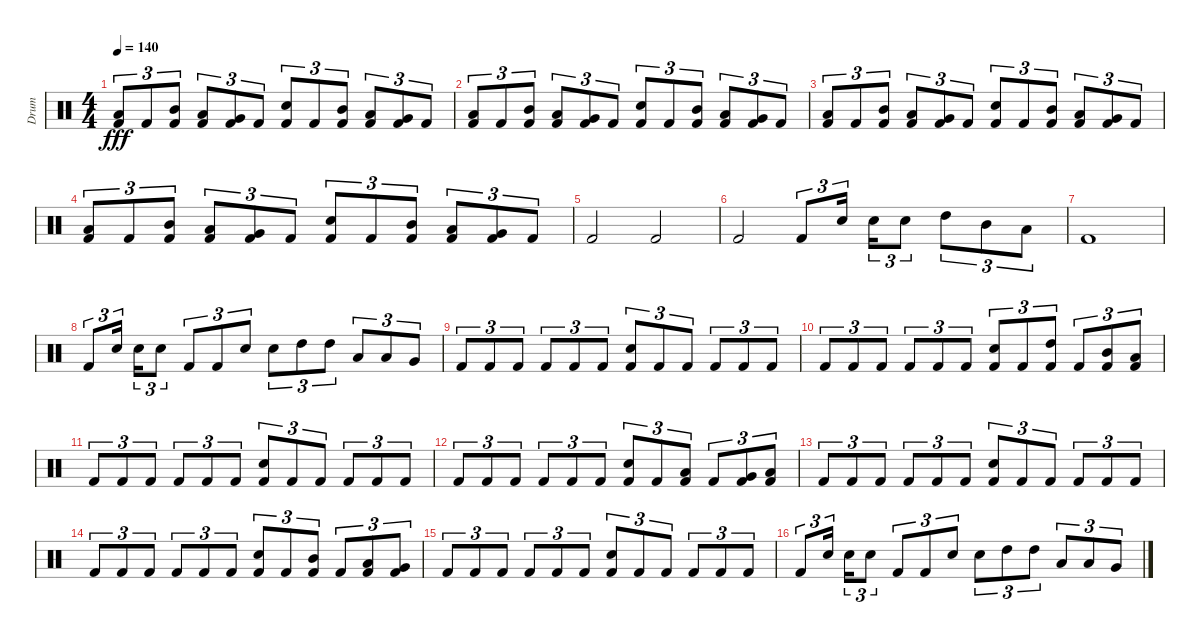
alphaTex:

\track ("Drum" "Drum") {instrument percussion}
\staff {score}
\articulation defaults
\ts (4 4)
\tempo 140
\clef neutral
\ks c
("Low Tom (hit)" "Kick (hit) 2").8{tu (3 2) dy fff} "Kick (hit) 2".8{tu (3 2)} ("Mid Tom (hit)" "Kick (hit) 2").8{tu (3 2)} ("Low Tom (hit)" "Kick (hit) 2").8{tu (3 2)} ("Very Low Tom (hit)" "Kick (hit) 2").8{tu (3 2)} "Kick (hit) 2".8{tu (3 2)} ("Electric Snare (hit)" "Kick (hit) 2").8{tu (3 2)} "Kick (hit) 2".8{tu (3 2)} ("Mid Tom (hit)" "Kick (hit) 2").8{tu (3 2)} ("Low Tom (hit)" "Kick (hit) 2").8{tu (3 2)} ("Very Low Tom (hit)" "Kick (hit) 2").8{tu (3 2)} "Kick (hit) 2".8{tu (3 2)} |
("Low Tom (hit)" "Kick (hit) 2").8{tu (3 2)} "Kick (hit) 2".8{tu (3 2)} ("Mid Tom (hit)" "Kick (hit) 2").8{tu (3 2)} ("Low Tom (hit)" "Kick (hit) 2").8{tu (3 2)} ("Very Low Tom (hit)" "Kick (hit) 2").8{tu (3 2)} "Kick (hit) 2".8{tu (3 2)} ("Electric Snare (hit)" "Kick (hit) 2").8{tu (3 2)} "Kick (hit) 2".8{tu (3 2)} ("Mid Tom (hit)" "Kick (hit) 2").8{tu (3 2)} ("Low Tom (hit)" "Kick (hit) 2").8{tu (3 2)} ("Very Low Tom (hit)" "Kick (hit) 2").8{tu (3 2)} "Kick (hit) 2".8{tu (3 2)} |
("Low Tom (hit)" "Kick (hit) 2").8{tu (3 2)} "Kick (hit) 2".8{tu (3 2)} ("Mid Tom (hit)" "Kick (hit) 2").8{tu (3 2)} ("Low Tom (hit)" "Kick (hit) 2").8{tu (3 2)} ("Very Low Tom (hit)" "Kick (hit) 2").8{tu (3 2)} "Kick (hit) 2".8{tu (3 2)} ("Electric Snare (hit)" "Kick (hit) 2").8{tu (3 2)} "Kick (hit) 2".8{tu (3 2)} ("Mid Tom (hit)" "Kick (hit) 2").8{tu (3 2)} ("Low Tom (hit)" "Kick (hit) 2").8{tu (3 2)} ("Very Low Tom (hit)" "Kick (hit) 2").8{tu (3 2)} "Kick (hit) 2".8{tu (3 2)} |
("Low Tom (hit)" "Kick (hit) 2").8{tu (3 2)} "Kick (hit) 2".8{tu (3 2)} ("Mid Tom (hit)" "Kick (hit) 2").8{tu (3 2)} ("Low Tom (hit)" "Kick (hit) 2").8{tu (3 2)} ("Very Low Tom (hit)" "Kick (hit) 2").8{tu (3 2)} "Kick (hit) 2".8{tu (3 2)} ("Electric Snare (hit)" "Kick (hit) 2").8{tu (3 2)} "Kick (hit) 2".8{tu (3 2)} ("Mid Tom (hit)" "Kick (hit) 2").8{tu (3 2)} ("Low Tom (hit)" "Kick (hit) 2").8{tu (3 2)} ("Very Low Tom (hit)" "Kick (hit) 2").8{tu (3 2)} "Kick (hit) 2".8{tu (3 2)} |
"Kick (hit) 2".2 "Kick (hit) 2".2 |
"Kick (hit) 2".2 "Kick (hit) 2".8{tu (3 2)} "Electric Snare (hit)".16{tu (3 2) beam splitsecondary} "Electric Snare (hit)".16{tu (3 2)} "Electric Snare (hit)".8{tu (3 2)} "High Tom (hit)".8{tu (3 2)} "Mid Tom (hit)".8{tu (3 2)} "Low Tom (hit)".8{tu (3 2)} |
"Kick (hit) 2".1 |
"Kick (hit) 2".8{tu (3 2)} "Electric Snare (hit)".16{tu (3 2) beam splitsecondary} "Electric Snare (hit)".16{tu (3 2)} "Electric Snare (hit)".8{tu (3 2)} "Kick (hit) 2".8{tu (3 2)} "Kick (hit) 2".8{tu (3 2)} "Electric Snare (hit)".8{tu (3 2)} "Electric Snare (hit)".8{tu (3 2)} "High Tom (hit)".8{tu (3 2)} "High Tom (hit)".8{tu (3 2)} "Low Tom (hit)".8{tu (3 2)} "Low Tom (hit)".8{tu (3 2)} "Very Low Tom (hit)".8{tu (3 2)} |
"Kick (hit) 2".8{tu (3 2)} "Kick (hit) 2".8{tu (3 2)} "Kick (hit) 2".8{tu (3 2)} "Kick (hit) 2".8{tu (3 2)} "Kick (hit) 2".8{tu (3 2)} "Kick (hit) 2".8{tu (3 2)} ("Electric Snare (hit)" "Kick (hit) 2").8{tu (3 2)} "Kick (hit) 2".8{tu (3 2)} "Kick (hit) 2".8{tu (3 2)} "Kick (hit) 2".8{tu (3 2)} "Kick (hit) 2".8{tu (3 2)} "Kick (hit) 2".8{tu (3 2)} |
"Kick (hit) 2".8{tu (3 2)} "Kick (hit) 2".8{tu (3 2)} "Kick (hit) 2".8{tu (3 2)} "Kick (hit) 2".8{tu (3 2)} "Kick (hit) 2".8{tu (3 2)} "Kick (hit) 2".8{tu (3 2)} ("Electric Snare (hit)" "Kick (hit) 2").8{tu (3 2)} "Kick (hit) 2".8{tu (3 2)} ("High Tom (hit)" "Kick (hit) 2").8{tu (3 2)} "Kick (hit) 2".8{tu (3 2)} ("Mid Tom (hit)" "Kick (hit) 2").8{tu (3 2)} ("Low Tom (hit)" "Kick (hit) 2").8{tu (3 2)} |
"Kick (hit) 2".8{tu (3 2)} "Kick (hit) 2".8{tu (3 2)} "Kick (hit) 2".8{tu (3 2)} "Kick (hit) 2".8{tu (3 2)} "Kick (hit) 2".8{tu (3 2)} "Kick (hit) 2".8{tu (3 2)} ("Electric Snare (hit)" "Kick (hit) 2").8{tu (3 2)} "Kick (hit) 2".8{tu (3 2)} "Kick (hit) 2".8{tu (3 2)} "Kick (hit) 2".8{tu (3 2)} "Kick (hit) 2".8{tu (3 2)} "Kick (hit) 2".8{tu (3 2)} |
"Kick (hit) 2".8{tu (3 2)} "Kick (hit) 2".8{tu (3 2)} "Kick (hit) 2".8{tu (3 2)} "Kick (hit) 2".8{tu (3 2)} "Kick (hit) 2".8{tu (3 2)} "Kick (hit) 2".8{tu (3 2)} ("Electric Snare (hit)" "Kick (hit) 2").8{tu (3 2)} "Kick (hit) 2".8{tu (3 2)} ("Low Tom (hit)" "Kick (hit) 2").8{tu (3 2)} "Kick (hit) 2".8{tu (3 2)} ("Very Low Tom (hit)" "Kick (hit) 2").8{tu (3 2)} ("Low Floor Tom (hit)" "Kick (hit) 2").8{tu (3 2)} |
"Kick (hit) 2".8{tu (3 2)} "Kick (hit) 2".8{tu (3 2)} "Kick (hit) 2".8{tu (3 2)} "Kick (hit) 2".8{tu (3 2)} "Kick (hit) 2".8{tu (3 2)} "Kick (hit) 2".8{tu (3 2)} ("Electric Snare (hit)" "Kick (hit) 2").8{tu (3 2)} "Kick (hit) 2".8{tu (3 2)} "Kick (hit) 2".8{tu (3 2)} "Kick (hit) 2".8{tu (3 2)} "Kick (hit) 2".8{tu (3 2)} "Kick (hit) 2".8{tu (3 2)} |
"Kick (hit) 2".8{tu (3 2)} "Kick (hit) 2".8{tu (3 2)} "Kick (hit) 2".8{tu (3 2)} "Kick (hit) 2".8{tu (3 2)} "Kick (hit) 2".8{tu (3 2)} "Kick (hit) 2".8{tu (3 2)} ("Electric Snare (hit)" "Kick (hit) 2").8{tu (3 2)} "Kick (hit) 2".8{tu (3 2)} ("Mid Tom (hit)" "Kick (hit) 2").8{tu (3 2)} "Kick (hit) 2".8{tu (3 2)} ("Low Tom (hit)" "Kick (hit) 2").8{tu (3 2)} ("Very Low Tom (hit)" "Kick (hit) 2").8{tu (3 2)} |
"Kick (hit) 2".8{tu (3 2)} "Kick (hit) 2".8{tu (3 2)} "Kick (hit) 2".8{tu (3 2)} "Kick (hit) 2".8{tu (3 2)} "Kick (hit) 2".8{tu (3 2)} "Kick (hit) 2".8{tu (3 2)} ("Electric Snare (hit)" "Kick (hit) 2").8{tu (3 2)} "Kick (hit) 2".8{tu (3 2)} "Kick (hit) 2".8{tu (3 2)} "Kick (hit) 2".8{tu (3 2)} "Kick (hit) 2".8{tu (3 2)} "Kick (hit) 2".8{tu (3 2)} |
"Kick (hit) 2".8{tu (3 2)} "Electric Snare (hit)".16{tu (3 2) beam splitsecondary} "Electric Snare (hit)".16{tu (3 2)} "Electric Snare (hit)".8{tu (3 2)} "Kick (hit) 2".8{tu (3 2)} "Kick (hit) 2".8{tu (3 2)} "Electric Snare (hit)".8{tu (3 2)} "Electric Snare (hit)".8{tu (3 2)} "High Tom (hit)".8{tu (3 2)} "High Tom (hit)".8{tu (3 2)} "Low Tom (hit)".8{tu (3 2)} "Low Tom (hit)".8{tu (3 2)} "Very Low Tom (hit)".8{tu (3 2)}
